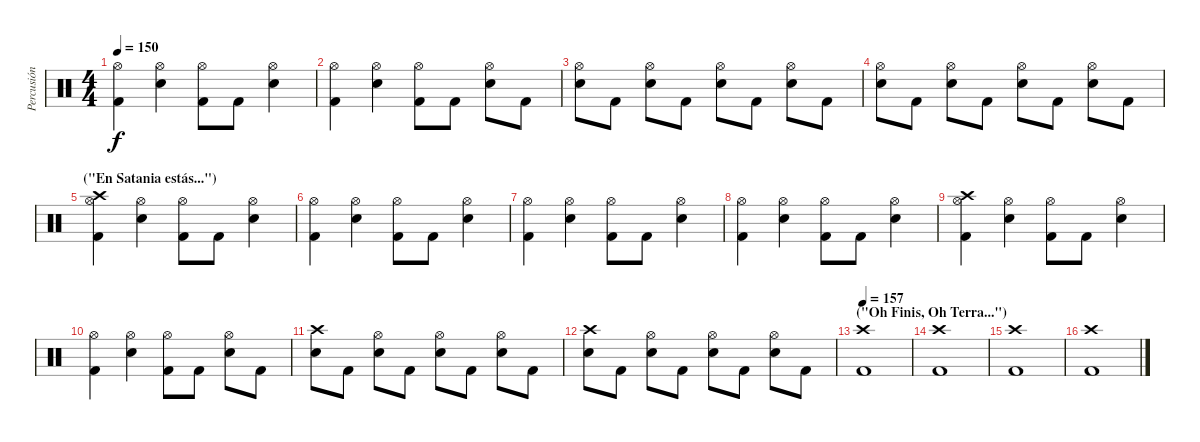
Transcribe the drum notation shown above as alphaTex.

\track ("Percusión" "Percusión") {instrument percussion}
\staff {score}
\articulation defaults
\ts (4 4)
\tempo 150
\clef neutral
\ks c
("Hi-Hat (open)" "Kick (hit) 2").4{dy f} ("Hi-Hat (open)" "Snare (hit) 2").4 ("Hi-Hat (open)" "Kick (hit) 2").8 "Kick (hit) 2".8 ("Hi-Hat (open)" "Snare (hit) 2").4 |
("Hi-Hat (open)" "Kick (hit) 2").4 ("Hi-Hat (open)" "Snare (hit) 2").4 ("Hi-Hat (open)" "Kick (hit) 2").8 "Kick (hit) 2".8 ("Hi-Hat (open)" "Snare (hit) 2").8 "Kick (hit) 2".8 |
("Hi-Hat (open)" "Snare (hit) 2").8 "Kick (hit) 2".8 ("Hi-Hat (open)" "Snare (hit) 2").8 "Kick (hit) 2".8 ("Hi-Hat (open)" "Snare (hit) 2").8 "Kick (hit) 2".8 ("Hi-Hat (open)" "Snare (hit) 2").8 "Kick (hit) 2".8 |
("Hi-Hat (open)" "Snare (hit) 2").8 "Kick (hit) 2".8 ("Hi-Hat (open)" "Snare (hit) 2").8 "Kick (hit) 2".8 ("Hi-Hat (open)" "Snare (hit) 2").8 "Kick (hit) 2".8 ("Hi-Hat (open)" "Snare (hit) 2").8 "Kick (hit) 2".8 |
\section ("" "(\"En Satania estás...\")")
("Crash high (hit)" "Hi-Hat (open)" "Kick (hit) 2").4 ("Hi-Hat (open)" "Snare (hit) 2").4 ("Hi-Hat (open)" "Kick (hit) 2").8 "Kick (hit) 2".8 ("Hi-Hat (open)" "Snare (hit) 2").4 |
("Hi-Hat (open)" "Kick (hit) 2").4 ("Hi-Hat (open)" "Snare (hit) 2").4 ("Hi-Hat (open)" "Kick (hit) 2").8 "Kick (hit) 2".8 ("Hi-Hat (open)" "Snare (hit) 2").4 |
("Hi-Hat (open)" "Kick (hit) 2").4 ("Hi-Hat (open)" "Snare (hit) 2").4 ("Hi-Hat (open)" "Kick (hit) 2").8 "Kick (hit) 2".8 ("Hi-Hat (open)" "Snare (hit) 2").4 |
("Hi-Hat (open)" "Kick (hit) 2").4 ("Hi-Hat (open)" "Snare (hit) 2").4 ("Hi-Hat (open)" "Kick (hit) 2").8 "Kick (hit) 2".8 ("Hi-Hat (open)" "Snare (hit) 2").4 |
("Crash high (hit)" "Hi-Hat (open)" "Kick (hit) 2").4 ("Hi-Hat (open)" "Snare (hit) 2").4 ("Hi-Hat (open)" "Kick (hit) 2").8 "Kick (hit) 2".8 ("Hi-Hat (open)" "Snare (hit) 2").4 |
("Hi-Hat (open)" "Kick (hit) 2").4 ("Hi-Hat (open)" "Snare (hit) 2").4 ("Hi-Hat (open)" "Kick (hit) 2").8 "Kick (hit) 2".8 ("Hi-Hat (open)" "Snare (hit) 2").8 "Kick (hit) 2".8 |
("Crash high (hit)" "Snare (hit) 2").8 "Kick (hit) 2".8 ("Hi-Hat (open)" "Snare (hit) 2").8 "Kick (hit) 2".8 ("Hi-Hat (open)" "Snare (hit) 2").8 "Kick (hit) 2".8 ("Hi-Hat (open)" "Snare (hit) 2").8 "Kick (hit) 2".8 |
("Crash high (hit)" "Snare (hit) 2").8 "Kick (hit) 2".8 ("Hi-Hat (open)" "Snare (hit) 2").8 "Kick (hit) 2".8 ("Hi-Hat (open)" "Snare (hit) 2").8 "Kick (hit) 2".8 ("Hi-Hat (open)" "Snare (hit) 2").8 "Kick (hit) 2".8 |
\section ("" "(\"Oh Finis, Oh Terra...\")")
\tempo 157
("Crash high (hit)" "Kick (hit) 2").1 |
("Crash high (hit)" "Kick (hit) 2").1 |
("Crash high (hit)" "Kick (hit) 2").1 |
("Crash high (hit)" "Kick (hit) 2").1
